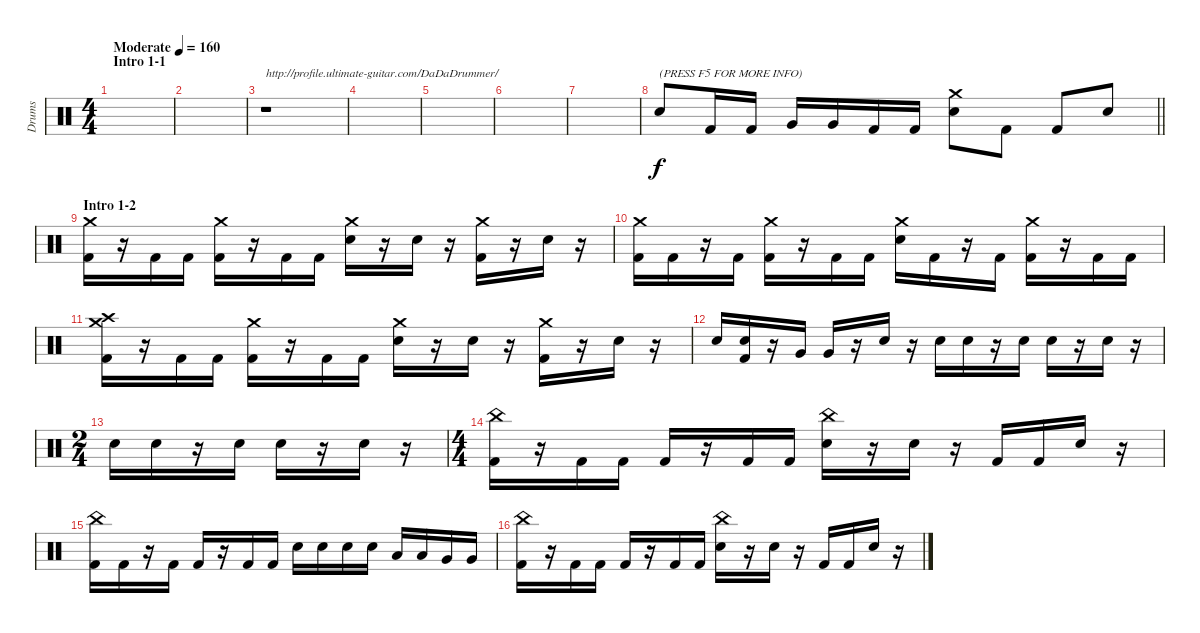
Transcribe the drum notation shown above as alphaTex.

\track ("Drums" "Drums") {instrument percussion}
\staff {score}
\articulation defaults
\ts (4 4)
\section ("" "Intro 1-1")
\tempo (160 "Moderate")
\clef neutral
\ks c
|
|
r.1{txt "http://profile.ultimate-guitar.com/DaDaDrummer/"} |
|
|
|
|
\barLineRight lightlight "Electric Snare (hit)".8{txt "(PRESS F5 FOR MORE INFO)"} "Kick (hit) 2".16 "Kick (hit) 2".16 "Very Low Tom (hit)".16 "Very Low Tom (hit)".16 "Kick (hit) 2".16 "Kick (hit) 2".16
("Crash medium (hit)" "Electric Snare (hit)").8 "Kick (hit) 2".8 "Kick (hit) 2".8 "Electric Snare (hit)".8 |
\section ("" "Intro 1-2")
("Crash medium (hit)" "Kick (hit) 2").16 r.16 "Kick (hit) 2".16 "Kick (hit) 2".16 ("Crash medium (hit)" "Kick (hit) 2").16 r.16 "Kick (hit) 2".16 "Kick (hit) 2".16 ("Crash medium (hit)" "Electric Snare (hit)").16 r.16 "Electric Snare (hit)".16 r.16 ("Crash medium (hit)" "Kick (hit) 2").16 r.16 "Electric Snare (hit)".16 r.16 |
("Crash medium (hit)" "Kick (hit) 2").16 "Kick (hit) 2".16 r.16 "Kick (hit) 2".16 ("Crash medium (hit)" "Kick (hit) 2").16 r.16 "Kick (hit) 2".16 "Kick (hit) 2".16 ("Crash medium (hit)" "Electric Snare (hit)").16 "Kick (hit) 2".16 r.16 "Kick (hit) 2".16 ("Crash medium (hit)" "Kick (hit) 2").16 r.16 "Kick (hit) 2".16 "Kick (hit) 2".16 |
("Crash medium (hit)" "Crash high (hit)" "Kick (hit) 2").16 r.16 "Kick (hit) 2".16 "Kick (hit) 2".16 ("Crash medium (hit)" "Kick (hit) 2").16 r.16 "Kick (hit) 2".16 "Kick (hit) 2".16 ("Crash medium (hit)" "Electric Snare (hit)").16 r.16 "Electric Snare (hit)".16 r.16 ("Crash medium (hit)" "Kick (hit) 2").16 r.16 "Electric Snare (hit)".16 r.16 |
"Electric Snare (hit)".16 ("Electric Snare (hit)" "Kick (hit) 2").16 r.16 "Very Low Tom (hit)".16 "Very Low Tom (hit)".16 r.16 "Electric Snare (hit)".16 r.16 "Electric Snare (hit)".16 "Electric Snare (hit)".16 r.16 "Electric Snare (hit)".16 "Electric Snare (hit)".16 r.16 "Electric Snare (hit)".16 r.16 |
\ts (2 4)
"Electric Snare (hit)".16 "Electric Snare (hit)".16 r.16 "Electric Snare (hit)".16 "Electric Snare (hit)".16 r.16 "Electric Snare (hit)".16 r.16 |
\ts (4 4)
("China (hit)" "Kick (hit) 2").16 r.16 "Kick (hit) 2".16 "Kick (hit) 2".16 "Kick (hit) 2".16 r.16 "Kick (hit) 2".16 "Kick (hit) 2".16 ("China (hit)" "Electric Snare (hit)").16 r.16 "Electric Snare (hit)".16 r.16 "Kick (hit) 2".16 "Kick (hit) 2".16 "Electric Snare (hit)".16 r.16 |
("China (hit)" "Kick (hit) 2").16 "Kick (hit) 2".16 r.16 "Kick (hit) 2".16 "Kick (hit) 2".16 r.16 "Kick (hit) 2".16 "Kick (hit) 2".16 "Electric Snare (hit)".16 "Electric Snare (hit)".16 "Electric Snare (hit)".16 "Electric Snare (hit)".16 "Low Tom (hit)".16 "Low Tom (hit)".16 "Very Low Tom (hit)".16 "Very Low Tom (hit)".16 |
("China (hit)" "Kick (hit) 2").16 r.16 "Kick (hit) 2".16 "Kick (hit) 2".16 "Kick (hit) 2".16 r.16 "Kick (hit) 2".16 "Kick (hit) 2".16 ("China (hit)" "Electric Snare (hit)").16 r.16 "Electric Snare (hit)".16 r.16 "Kick (hit) 2".16 "Kick (hit) 2".16 "Electric Snare (hit)".16 r.16
